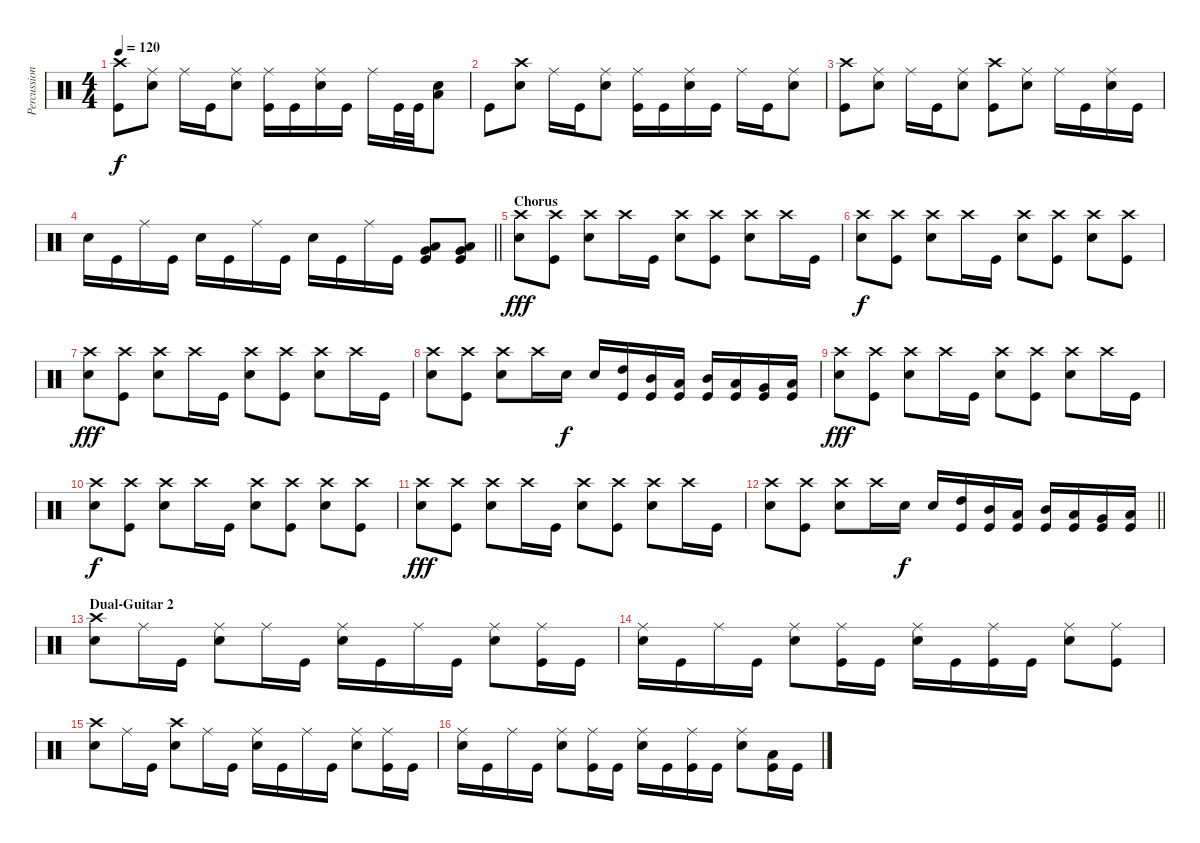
\track ("Percussion" "Percussion") {instrument percussion}
\staff {score}
\articulation defaults
\ts (4 4)
\tempo 120
\clef neutral
\ks c
("Crash high (hit)" "Kick (hit)").8{dy f} ("Ride (middle)" "Snare (hit) 2").8 "Ride (middle)".16 "Kick (hit)".16 ("Ride (middle)" "Snare (hit) 2").8 ("Ride (middle)" "Kick (hit)").16 "Kick (hit)".16 ("Ride (middle)" "Snare (hit) 2").16 "Kick (hit)".16 "Ride (middle)".16 "Kick (hit)".32 "Kick (hit)".32 ("Snare (hit) 2" "Low Floor Tom (hit)").8 |
"Kick (hit)".8 ("Crash high (hit)" "Snare (hit) 2").8 "Ride (middle)".16 "Kick (hit)".16 ("Ride (middle)" "Snare (hit) 2").8 ("Ride (middle)" "Kick (hit)").16 "Kick (hit)".16 ("Ride (middle)" "Snare (hit) 2").16 "Kick (hit)".16 "Ride (middle)".16 "Kick (hit)".16 ("Ride (middle)" "Snare (hit) 2").8 |
("Crash high (hit)" "Kick (hit)").8 ("Ride (middle)" "Snare (hit) 2").8 "Ride (middle)".16 "Kick (hit)".16 ("Ride (middle)" "Snare (hit) 2").8 ("Crash high (hit)" "Kick (hit)").8 ("Ride (middle)" "Snare (hit) 2").8 "Ride (middle)".16 "Kick (hit)".16 ("Ride (middle)" "Snare (hit) 2").16 "Kick (hit)".16 |
\barLineRight lightlight "Snare (hit) 2".16 "Kick (hit)".16 "Ride (middle)".16 "Kick (hit)".16 "Snare (hit) 2".16 "Kick (hit)".16 "Ride (middle)".16 "Kick (hit)".16 "Snare (hit) 2".16 "Kick (hit)".16 "Ride (middle)".16 "Kick (hit)".16
("Very Low Tom (hit)" "Low Floor Tom (hit)" "Kick (hit)").8 ("Very Low Tom (hit)" "Low Floor Tom (hit)" "Kick (hit)").8 |
\section ("" "Chorus")
("Crash high (hit)" "Snare (hit) 2").8{dy fff} ("Crash high (hit)" "Kick (hit)").8 ("Crash high (hit)" "Snare (hit) 2").8 "Crash high (hit)".16 "Kick (hit)".16 ("Crash high (hit)" "Snare (hit) 2").8 ("Crash high (hit)" "Kick (hit)").8 ("Crash high (hit)" "Snare (hit) 2").8 "Crash high (hit)".16 "Kick (hit)".16 |
("Crash high (hit)" "Snare (hit) 2").8{dy f} ("Crash high (hit)" "Kick (hit)").8 ("Crash high (hit)" "Snare (hit) 2").8 "Crash high (hit)".16 "Kick (hit)".16 ("Crash high (hit)" "Snare (hit) 2").8 ("Crash high (hit)" "Kick (hit)").8 ("Crash high (hit)" "Snare (hit) 2").8 ("Crash high (hit)" "Kick (hit)").8 |
("Crash high (hit)" "Snare (hit) 2").8{dy fff} ("Crash high (hit)" "Kick (hit)").8 ("Crash high (hit)" "Snare (hit) 2").8 "Crash high (hit)".16 "Kick (hit)".16 ("Crash high (hit)" "Snare (hit) 2").8 ("Crash high (hit)" "Kick (hit)").8 ("Crash high (hit)" "Snare (hit) 2").8 "Crash high (hit)".16 "Kick (hit)".16 |
("Crash high (hit)" "Snare (hit) 2").8 ("Crash high (hit)" "Kick (hit)").8 ("Crash high (hit)" "Snare (hit) 2").8 "Crash high (hit)".16 "Snare (hit) 2".16{dy f} "Snare (hit) 2".16 ("High Tom (hit)" "Kick (hit)").16 ("Mid Tom (hit)" "Kick (hit)").16 ("Low Tom (hit)" "Kick (hit)").16 ("Mid Tom (hit)" "Kick (hit)").16 ("Low Tom (hit)" "Kick (hit)").16 ("Very Low Tom (hit)" "Kick (hit)").16 ("Low Floor Tom (hit)" "Kick (hit)").16 |
("Crash high (hit)" "Snare (hit) 2").8{dy fff} ("Crash high (hit)" "Kick (hit)").8 ("Crash high (hit)" "Snare (hit) 2").8 "Crash high (hit)".16 "Kick (hit)".16 ("Crash high (hit)" "Snare (hit) 2").8 ("Crash high (hit)" "Kick (hit)").8 ("Crash high (hit)" "Snare (hit) 2").8 "Crash high (hit)".16 "Kick (hit)".16 |
("Crash high (hit)" "Snare (hit) 2").8{dy f} ("Crash high (hit)" "Kick (hit)").8 ("Crash high (hit)" "Snare (hit) 2").8 "Crash high (hit)".16 "Kick (hit)".16 ("Crash high (hit)" "Snare (hit) 2").8 ("Crash high (hit)" "Kick (hit)").8 ("Crash high (hit)" "Snare (hit) 2").8 ("Crash high (hit)" "Kick (hit)").8 |
("Crash high (hit)" "Snare (hit) 2").8{dy fff} ("Crash high (hit)" "Kick (hit)").8 ("Crash high (hit)" "Snare (hit) 2").8 "Crash high (hit)".16 "Kick (hit)".16 ("Crash high (hit)" "Snare (hit) 2").8 ("Crash high (hit)" "Kick (hit)").8 ("Crash high (hit)" "Snare (hit) 2").8 "Crash high (hit)".16 "Kick (hit)".16 |
\barLineRight lightlight
("Crash high (hit)" "Snare (hit) 2").8 ("Crash high (hit)" "Kick (hit)").8 ("Crash high (hit)" "Snare (hit) 2").8 "Crash high (hit)".16 "Snare (hit) 2".16{dy f} "Snare (hit) 2".16 ("High Tom (hit)" "Kick (hit)").16 ("Mid Tom (hit)" "Kick (hit)").16 ("Low Tom (hit)" "Kick (hit)").16 ("Mid Tom (hit)" "Kick (hit)").16 ("Low Tom (hit)" "Kick (hit)").16 ("Very Low Tom (hit)" "Kick (hit)").16 ("Low Floor Tom (hit)" "Kick (hit)").16 |
\section ("" "Dual-Guitar 2")
("Crash high (hit)" "Snare (hit) 2").8 "Ride (middle)".16 "Kick (hit)".16 ("Ride (middle)" "Snare (hit) 2").8 "Ride (middle)".16 "Kick (hit)".16 ("Ride (middle)" "Snare (hit) 2").16 "Kick (hit)".16 "Ride (middle)".16 "Kick (hit)".16 ("Ride (middle)" "Snare (hit) 2").8 ("Ride (middle)" "Kick (hit)").16 "Kick (hit)".16 |
("Ride (middle)" "Snare (hit) 2").16 "Kick (hit)".16 "Ride (middle)".16 "Kick (hit)".16 ("Ride (middle)" "Snare (hit) 2").8 ("Ride (middle)" "Kick (hit)").16 "Kick (hit)".16 ("Ride (middle)" "Snare (hit) 2").16 "Kick (hit)".16 ("Ride (middle)" "Kick (hit)").16 "Kick (hit)".16 ("Ride (middle)" "Snare (hit) 2").8 ("Ride (middle)" "Kick (hit)").8 |
("Crash high (hit)" "Snare (hit) 2").8 "Ride (middle)".16 "Kick (hit)".16 ("Crash high (hit)" "Snare (hit) 2").8 "Ride (middle)".16 "Kick (hit)".16 ("Ride (middle)" "Snare (hit) 2").16 "Kick (hit)".16 "Ride (middle)".16 "Kick (hit)".16 ("Ride (middle)" "Snare (hit) 2").8 ("Ride (middle)" "Kick (hit)").16 "Kick (hit)".16 |
("Ride (middle)" "Snare (hit) 2").16 "Kick (hit)".16 "Ride (middle)".16 "Kick (hit)".16 ("Ride (middle)" "Snare (hit) 2").8 ("Ride (middle)" "Kick (hit)").16 "Kick (hit)".16 ("Ride (middle)" "Snare (hit) 2").16 "Kick (hit)".16 ("Ride (middle)" "Kick (hit)").16 "Kick (hit)".16 ("Ride (middle)" "Snare (hit) 2").8 ("Low Tom (hit)" "Kick (hit)").16 "Kick (hit)".16
